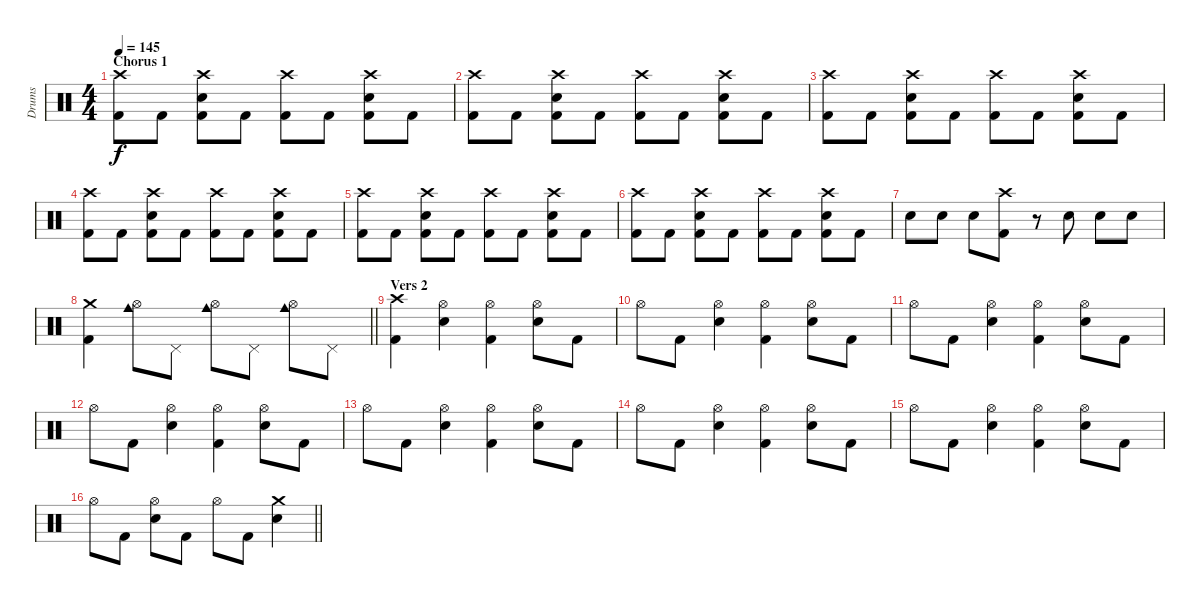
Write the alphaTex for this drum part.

\track ("Drums" "Drums") {instrument percussion}
\staff {score}
\articulation defaults
\ts (4 4)
\section ("" "Chorus 1")
\tempo 145
\clef neutral
\ks c
("Crash high (hit)" "Kick (hit) 2").8{dy f} "Kick (hit) 2".8 ("Crash high (hit)" "Snare (hit) 2" "Kick (hit) 2").8 "Kick (hit) 2".8 ("Crash high (hit)" "Kick (hit) 2").8 "Kick (hit) 2".8 ("Crash high (hit)" "Snare (hit) 2" "Kick (hit) 2").8 "Kick (hit) 2".8 |
("Crash high (hit)" "Kick (hit) 2").8 "Kick (hit) 2".8 ("Crash high (hit)" "Snare (hit) 2" "Kick (hit) 2").8 "Kick (hit) 2".8 ("Crash high (hit)" "Kick (hit) 2").8 "Kick (hit) 2".8 ("Crash high (hit)" "Snare (hit) 2" "Kick (hit) 2").8 "Kick (hit) 2".8 |
("Crash high (hit)" "Kick (hit) 2").8 "Kick (hit) 2".8 ("Crash high (hit)" "Snare (hit) 2" "Kick (hit) 2").8 "Kick (hit) 2".8 ("Crash high (hit)" "Kick (hit) 2").8 "Kick (hit) 2".8 ("Crash high (hit)" "Snare (hit) 2" "Kick (hit) 2").8 "Kick (hit) 2".8 |
("Crash high (hit)" "Kick (hit) 2").8 "Kick (hit) 2".8 ("Crash high (hit)" "Snare (hit) 2" "Kick (hit) 2").8 "Kick (hit) 2".8 ("Crash high (hit)" "Kick (hit) 2").8 "Kick (hit) 2".8 ("Crash high (hit)" "Snare (hit) 2" "Kick (hit) 2").8 "Kick (hit) 2".8 |
("Crash high (hit)" "Kick (hit) 2").8 "Kick (hit) 2".8 ("Crash high (hit)" "Snare (hit) 2" "Kick (hit) 2").8 "Kick (hit) 2".8 ("Crash high (hit)" "Kick (hit) 2").8 "Kick (hit) 2".8 ("Crash high (hit)" "Snare (hit) 2" "Kick (hit) 2").8 "Kick (hit) 2".8 |
("Crash high (hit)" "Kick (hit) 2").8 "Kick (hit) 2".8 ("Crash high (hit)" "Snare (hit) 2" "Kick (hit) 2").8 "Kick (hit) 2".8 ("Crash high (hit)" "Kick (hit) 2").8 "Kick (hit) 2".8 ("Crash high (hit)" "Snare (hit) 2" "Kick (hit) 2").8 "Kick (hit) 2".8 |
"Snare (hit) 2".8 "Snare (hit) 2".8 "Snare (hit) 2".8 ("Crash high (hit)" "Kick (hit) 2").8 r.8 "Snare (hit) 2".8 "Snare (hit) 2".8 "Snare (hit) 2".8 |
\barLineRight lightlight
("Crash medium (hit)" "Kick (hit) 2").4 ("Hi-Hat (open)" "Cowbell medium (hit)").8 "Pedal Hi-Hat (hit)".8 ("Hi-Hat (open)" "Cowbell medium (hit)").8 "Pedal Hi-Hat (hit)".8 ("Hi-Hat (open)" "Cowbell medium (hit)").8 "Pedal Hi-Hat (hit)".8 |
\section ("" "Vers 2")
("Crash high (hit)" "Kick (hit) 2").4 ("Hi-Hat (open)" "Snare (hit) 2").4 ("Hi-Hat (open)" "Kick (hit) 2").4 ("Hi-Hat (open)" "Snare (hit) 2").8 "Kick (hit) 2".8 |
"Hi-Hat (open)".8 "Kick (hit) 2".8 ("Hi-Hat (open)" "Snare (hit) 2").4 ("Hi-Hat (open)" "Kick (hit) 2").4 ("Hi-Hat (open)" "Snare (hit) 2").8 "Kick (hit) 2".8 |
"Hi-Hat (open)".8 "Kick (hit) 2".8 ("Hi-Hat (open)" "Snare (hit) 2").4 ("Hi-Hat (open)" "Kick (hit) 2").4 ("Hi-Hat (open)" "Snare (hit) 2").8 "Kick (hit) 2".8 |
"Hi-Hat (open)".8 "Kick (hit) 2".8 ("Hi-Hat (open)" "Snare (hit) 2").4 ("Hi-Hat (open)" "Kick (hit) 2").4 ("Hi-Hat (open)" "Snare (hit) 2").8 "Kick (hit) 2".8 |
"Hi-Hat (open)".8 "Kick (hit) 2".8 ("Hi-Hat (open)" "Snare (hit) 2").4 ("Hi-Hat (open)" "Kick (hit) 2").4 ("Hi-Hat (open)" "Snare (hit) 2").8 "Kick (hit) 2".8 |
"Hi-Hat (open)".8 "Kick (hit) 2".8 ("Hi-Hat (open)" "Snare (hit) 2").4 ("Hi-Hat (open)" "Kick (hit) 2").4 ("Hi-Hat (open)" "Snare (hit) 2").8 "Kick (hit) 2".8 |
"Hi-Hat (open)".8 "Kick (hit) 2".8 ("Hi-Hat (open)" "Snare (hit) 2").4 ("Hi-Hat (open)" "Kick (hit) 2").4 ("Hi-Hat (open)" "Snare (hit) 2").8 "Kick (hit) 2".8 |
\barLineRight lightlight "Hi-Hat (open)".8 "Kick (hit) 2".8
("Hi-Hat (open)" "Snare (hit) 2").8 "Kick (hit) 2".8 "Hi-Hat (open)".8 "Kick (hit) 2".8 ("Crash medium (hit)" "Snare (hit) 2").4
